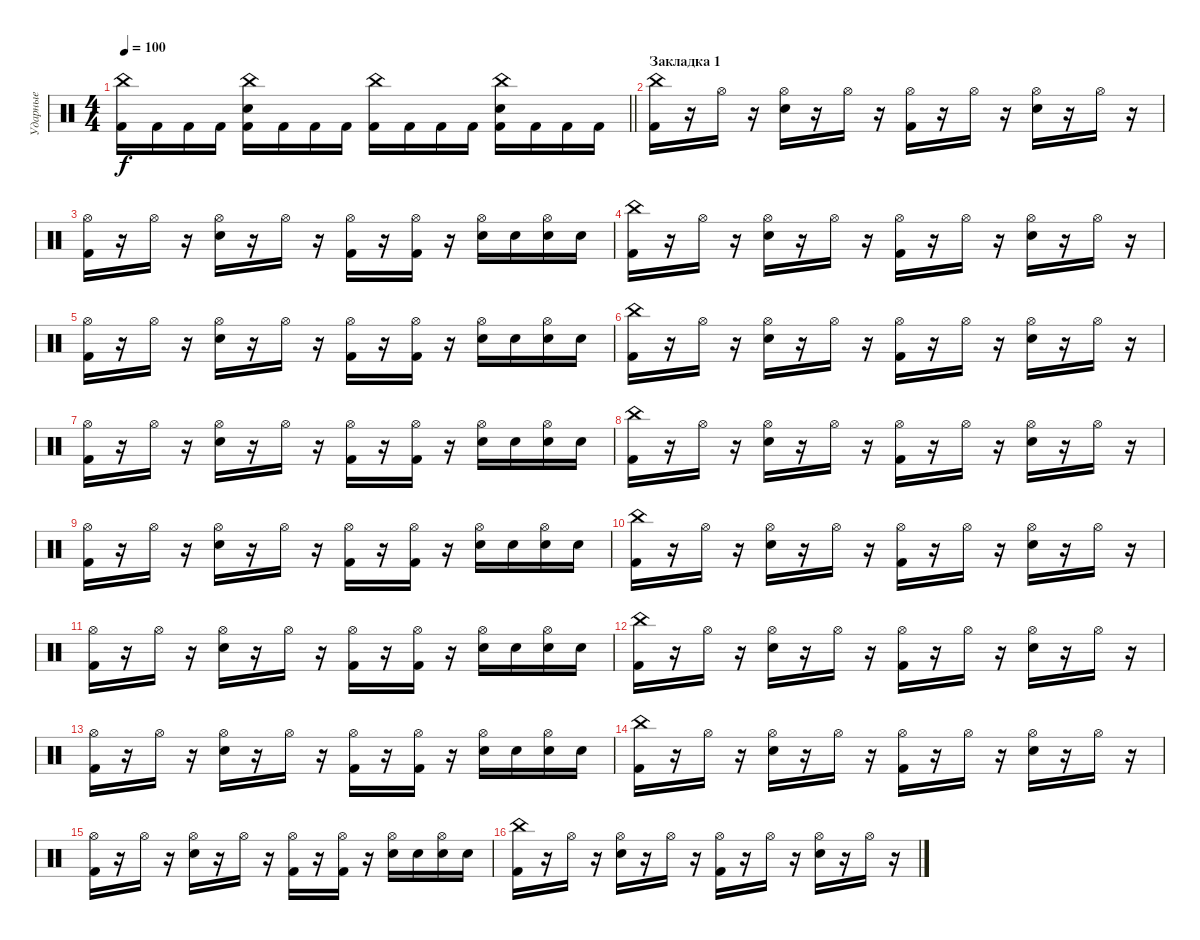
\track ("Ударные" "Ударные") {instrument percussion}
\staff {score}
\articulation defaults
\ts (4 4)
\tempo 100
\clef neutral
\barLineRight lightlight
\ks c
("China (hit)" "Kick (hit) 2").16{dy f} "Kick (hit) 2".16 "Kick (hit) 2".16 "Kick (hit) 2".16 ("China (hit)" "Electric Snare (hit)" "Kick (hit) 2").16 "Kick (hit) 2".16 "Kick (hit) 2".16 "Kick (hit) 2".16 ("China (hit)" "Kick (hit) 2").16 "Kick (hit) 2".16 "Kick (hit) 2".16 "Kick (hit) 2".16 ("China (hit)" "Electric Snare (hit)" "Kick (hit) 2").16 "Kick (hit) 2".16 "Kick (hit) 2".16 "Kick (hit) 2".16 |
\section ("" "Закладка 1")
("China (hit)" "Kick (hit) 2").16 r.16 "Hi-Hat (open)".16 r.16 ("Hi-Hat (open)" "Electric Snare (hit)").16 r.16 "Hi-Hat (open)".16 r.16 ("Hi-Hat (open)" "Kick (hit) 2").16 r.16 "Hi-Hat (open)".16 r.16 ("Hi-Hat (open)" "Electric Snare (hit)").16 r.16 "Hi-Hat (open)".16 r.16 |
("Hi-Hat (open)" "Kick (hit) 2").16 r.16 "Hi-Hat (open)".16 r.16 ("Hi-Hat (open)" "Electric Snare (hit)").16 r.16 "Hi-Hat (open)".16 r.16 ("Hi-Hat (open)" "Kick (hit) 2").16 r.16 ("Hi-Hat (open)" "Kick (hit) 2").16 r.16 ("Hi-Hat (open)" "Electric Snare (hit)").16 "Electric Snare (hit)".16 ("Hi-Hat (open)" "Electric Snare (hit)").16 "Electric Snare (hit)".16 |
("China (hit)" "Kick (hit) 2").16 r.16 "Hi-Hat (open)".16 r.16 ("Hi-Hat (open)" "Electric Snare (hit)").16 r.16 "Hi-Hat (open)".16 r.16 ("Hi-Hat (open)" "Kick (hit) 2").16 r.16 "Hi-Hat (open)".16 r.16 ("Hi-Hat (open)" "Electric Snare (hit)").16 r.16 "Hi-Hat (open)".16 r.16 |
("Hi-Hat (open)" "Kick (hit) 2").16 r.16 "Hi-Hat (open)".16 r.16 ("Hi-Hat (open)" "Electric Snare (hit)").16 r.16 "Hi-Hat (open)".16 r.16 ("Hi-Hat (open)" "Kick (hit) 2").16 r.16 ("Hi-Hat (open)" "Kick (hit) 2").16 r.16 ("Hi-Hat (open)" "Electric Snare (hit)").16 "Electric Snare (hit)".16 ("Hi-Hat (open)" "Electric Snare (hit)").16 "Electric Snare (hit)".16 |
("China (hit)" "Kick (hit) 2").16 r.16 "Hi-Hat (open)".16 r.16 ("Hi-Hat (open)" "Electric Snare (hit)").16 r.16 "Hi-Hat (open)".16 r.16 ("Hi-Hat (open)" "Kick (hit) 2").16 r.16 "Hi-Hat (open)".16 r.16 ("Hi-Hat (open)" "Electric Snare (hit)").16 r.16 "Hi-Hat (open)".16 r.16 |
("Hi-Hat (open)" "Kick (hit) 2").16 r.16 "Hi-Hat (open)".16 r.16 ("Hi-Hat (open)" "Electric Snare (hit)").16 r.16 "Hi-Hat (open)".16 r.16 ("Hi-Hat (open)" "Kick (hit) 2").16 r.16 ("Hi-Hat (open)" "Kick (hit) 2").16 r.16 ("Hi-Hat (open)" "Electric Snare (hit)").16 "Electric Snare (hit)".16 ("Hi-Hat (open)" "Electric Snare (hit)").16 "Electric Snare (hit)".16 |
("China (hit)" "Kick (hit) 2").16 r.16 "Hi-Hat (open)".16 r.16 ("Hi-Hat (open)" "Electric Snare (hit)").16 r.16 "Hi-Hat (open)".16 r.16 ("Hi-Hat (open)" "Kick (hit) 2").16 r.16 "Hi-Hat (open)".16 r.16 ("Hi-Hat (open)" "Electric Snare (hit)").16 r.16 "Hi-Hat (open)".16 r.16 |
("Hi-Hat (open)" "Kick (hit) 2").16 r.16 "Hi-Hat (open)".16 r.16 ("Hi-Hat (open)" "Electric Snare (hit)").16 r.16 "Hi-Hat (open)".16 r.16 ("Hi-Hat (open)" "Kick (hit) 2").16 r.16 ("Hi-Hat (open)" "Kick (hit) 2").16 r.16 ("Hi-Hat (open)" "Electric Snare (hit)").16 "Electric Snare (hit)".16 ("Hi-Hat (open)" "Electric Snare (hit)").16 "Electric Snare (hit)".16 |
("China (hit)" "Kick (hit) 2").16 r.16 "Hi-Hat (open)".16 r.16 ("Hi-Hat (open)" "Electric Snare (hit)").16 r.16 "Hi-Hat (open)".16 r.16 ("Hi-Hat (open)" "Kick (hit) 2").16 r.16 "Hi-Hat (open)".16 r.16 ("Hi-Hat (open)" "Electric Snare (hit)").16 r.16 "Hi-Hat (open)".16 r.16 |
("Hi-Hat (open)" "Kick (hit) 2").16 r.16 "Hi-Hat (open)".16 r.16 ("Hi-Hat (open)" "Electric Snare (hit)").16 r.16 "Hi-Hat (open)".16 r.16 ("Hi-Hat (open)" "Kick (hit) 2").16 r.16 ("Hi-Hat (open)" "Kick (hit) 2").16 r.16 ("Hi-Hat (open)" "Electric Snare (hit)").16 "Electric Snare (hit)".16 ("Hi-Hat (open)" "Electric Snare (hit)").16 "Electric Snare (hit)".16 |
("China (hit)" "Kick (hit) 2").16 r.16 "Hi-Hat (open)".16 r.16 ("Hi-Hat (open)" "Electric Snare (hit)").16 r.16 "Hi-Hat (open)".16 r.16 ("Hi-Hat (open)" "Kick (hit) 2").16 r.16 "Hi-Hat (open)".16 r.16 ("Hi-Hat (open)" "Electric Snare (hit)").16 r.16 "Hi-Hat (open)".16 r.16 |
("Hi-Hat (open)" "Kick (hit) 2").16 r.16 "Hi-Hat (open)".16 r.16 ("Hi-Hat (open)" "Electric Snare (hit)").16 r.16 "Hi-Hat (open)".16 r.16 ("Hi-Hat (open)" "Kick (hit) 2").16 r.16 ("Hi-Hat (open)" "Kick (hit) 2").16 r.16 ("Hi-Hat (open)" "Electric Snare (hit)").16 "Electric Snare (hit)".16 ("Hi-Hat (open)" "Electric Snare (hit)").16 "Electric Snare (hit)".16 |
("China (hit)" "Kick (hit) 2").16 r.16 "Hi-Hat (open)".16 r.16 ("Hi-Hat (open)" "Electric Snare (hit)").16 r.16 "Hi-Hat (open)".16 r.16 ("Hi-Hat (open)" "Kick (hit) 2").16 r.16 "Hi-Hat (open)".16 r.16 ("Hi-Hat (open)" "Electric Snare (hit)").16 r.16 "Hi-Hat (open)".16 r.16 |
("Hi-Hat (open)" "Kick (hit) 2").16 r.16 "Hi-Hat (open)".16 r.16 ("Hi-Hat (open)" "Electric Snare (hit)").16 r.16 "Hi-Hat (open)".16 r.16 ("Hi-Hat (open)" "Kick (hit) 2").16 r.16 ("Hi-Hat (open)" "Kick (hit) 2").16 r.16 ("Hi-Hat (open)" "Electric Snare (hit)").16 "Electric Snare (hit)".16 ("Hi-Hat (open)" "Electric Snare (hit)").16 "Electric Snare (hit)".16 |
("China (hit)" "Kick (hit) 2").16 r.16 "Hi-Hat (open)".16 r.16 ("Hi-Hat (open)" "Electric Snare (hit)").16 r.16 "Hi-Hat (open)".16 r.16 ("Hi-Hat (open)" "Kick (hit) 2").16 r.16 "Hi-Hat (open)".16 r.16 ("Hi-Hat (open)" "Electric Snare (hit)").16 r.16 "Hi-Hat (open)".16 r.16
